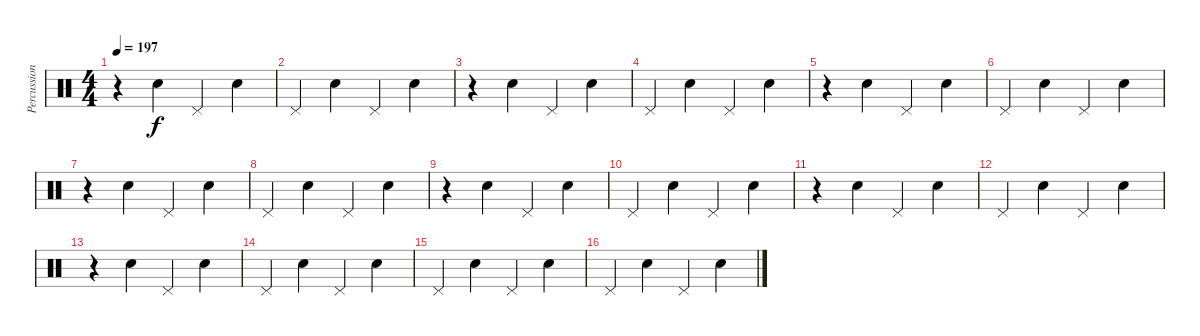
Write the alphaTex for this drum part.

\track ("Percussion" "Percussion") {instrument percussion}
\staff {score}
\articulation defaults
\ts (4 4)
\tempo 197
\clef neutral
\ks c
r.4{dy f} "Electric Snare (hit)".4 "Pedal Hi-Hat (hit)".4 "Electric Snare (hit)".4 |
"Pedal Hi-Hat (hit)".4 "Electric Snare (hit)".4 "Pedal Hi-Hat (hit)".4 "Electric Snare (hit)".4 |
r.4 "Electric Snare (hit)".4 "Pedal Hi-Hat (hit)".4 "Electric Snare (hit)".4 |
"Pedal Hi-Hat (hit)".4 "Electric Snare (hit)".4 "Pedal Hi-Hat (hit)".4 "Electric Snare (hit)".4 |
r.4 "Electric Snare (hit)".4 "Pedal Hi-Hat (hit)".4 "Electric Snare (hit)".4 |
"Pedal Hi-Hat (hit)".4 "Electric Snare (hit)".4 "Pedal Hi-Hat (hit)".4 "Electric Snare (hit)".4 |
r.4 "Electric Snare (hit)".4 "Pedal Hi-Hat (hit)".4 "Electric Snare (hit)".4 |
"Pedal Hi-Hat (hit)".4 "Electric Snare (hit)".4 "Pedal Hi-Hat (hit)".4 "Electric Snare (hit)".4 |
r.4 "Electric Snare (hit)".4 "Pedal Hi-Hat (hit)".4 "Electric Snare (hit)".4 |
"Pedal Hi-Hat (hit)".4 "Electric Snare (hit)".4 "Pedal Hi-Hat (hit)".4 "Electric Snare (hit)".4 |
r.4 "Electric Snare (hit)".4 "Pedal Hi-Hat (hit)".4 "Electric Snare (hit)".4 |
"Pedal Hi-Hat (hit)".4 "Electric Snare (hit)".4 "Pedal Hi-Hat (hit)".4 "Electric Snare (hit)".4 |
r.4 "Electric Snare (hit)".4 "Pedal Hi-Hat (hit)".4 "Electric Snare (hit)".4 |
"Pedal Hi-Hat (hit)".4 "Electric Snare (hit)".4 "Pedal Hi-Hat (hit)".4 "Electric Snare (hit)".4 |
"Pedal Hi-Hat (hit)".4 "Electric Snare (hit)".4 "Pedal Hi-Hat (hit)".4 "Electric Snare (hit)".4 |
"Pedal Hi-Hat (hit)".4 "Electric Snare (hit)".4 "Pedal Hi-Hat (hit)".4 "Electric Snare (hit)".4
